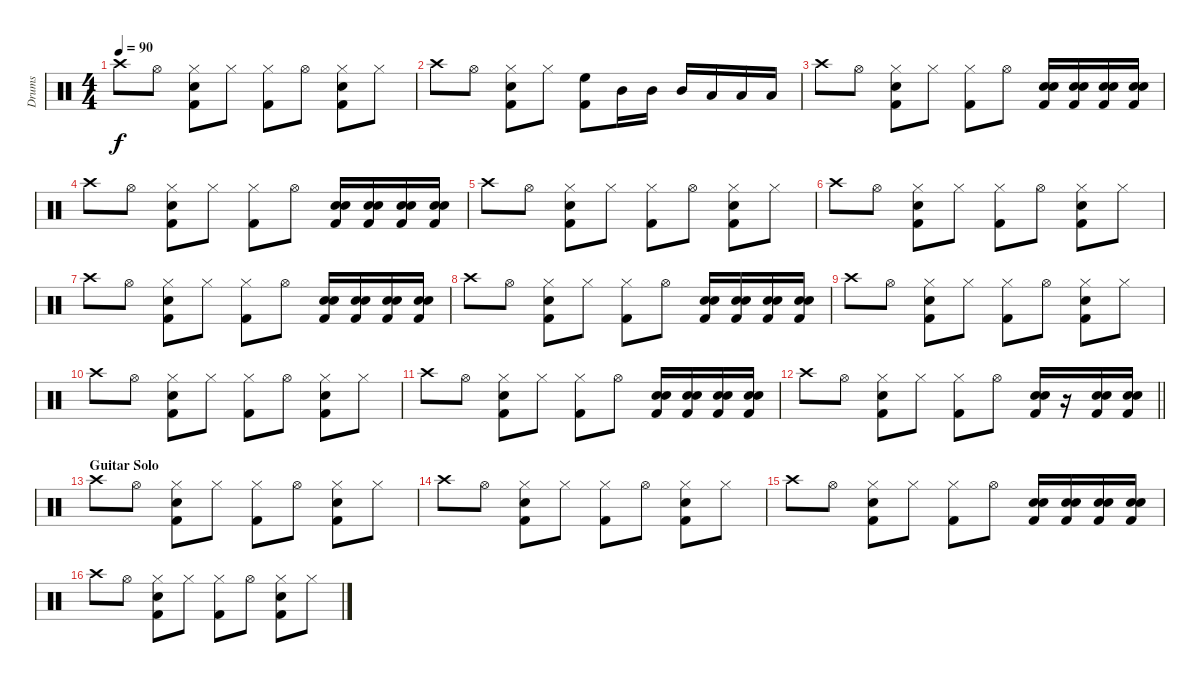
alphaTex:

\track ("Drums" "Drums") {instrument percussion}
\staff {score}
\articulation defaults
\ts (4 4)
\tempo 90
\clef neutral
\ks c "Crash high (hit)".8{dy f} "Hi-Hat (open)".8
("Kick (hit) 2" "Snare (hit) 2" "Hi-Hat (closed)").8 "Hi-Hat (closed)".8 ("Kick (hit) 2" "Hi-Hat (closed)").8 "Hi-Hat (open)".8 ("Kick (hit) 2" "Snare (hit) 2" "Hi-Hat (closed)").8 "Hi-Hat (closed)".8 |
"Crash high (hit)".8 "Hi-Hat (open)".8 ("Kick (hit) 2" "Snare (hit) 2" "Hi-Hat (closed)").8 "Hi-Hat (closed)".8 ("Kick (hit) 2" "High Floor Tom (hit)").8 "Mid Tom (hit)".16 "Mid Tom (hit)".16 "Mid Tom (hit)".16 "Low Tom (hit)".16 "Low Tom (hit)".16 "Low Tom (hit)".16 |
"Crash high (hit)".8 "Hi-Hat (open)".8 ("Kick (hit) 2" "Snare (hit) 2" "Hi-Hat (closed)").8 "Hi-Hat (closed)".8 ("Kick (hit) 2" "Hi-Hat (closed)").8 "Hi-Hat (open)".8 ("Snare (hit) 2" "Kick (hit) 2" "Snare (hit) 2").16 ("Snare (hit) 2" "Kick (hit) 2" "Snare (hit) 2").16 ("Snare (hit) 2" "Kick (hit) 2" "Snare (hit) 2").16 ("Snare (hit) 2" "Kick (hit) 2" "Snare (hit) 2").16 |
"Crash high (hit)".8 "Hi-Hat (open)".8 ("Kick (hit) 2" "Snare (hit) 2" "Hi-Hat (closed)").8 "Hi-Hat (closed)".8 ("Kick (hit) 2" "Hi-Hat (closed)").8 "Hi-Hat (open)".8 ("Snare (hit) 2" "Kick (hit) 2" "Snare (hit) 2").16 ("Snare (hit) 2" "Kick (hit) 2" "Snare (hit) 2").16 ("Snare (hit) 2" "Kick (hit) 2" "Snare (hit) 2").16 ("Snare (hit) 2" "Kick (hit) 2" "Snare (hit) 2").16 |
"Crash high (hit)".8 "Hi-Hat (open)".8 ("Kick (hit) 2" "Snare (hit) 2" "Hi-Hat (closed)").8 "Hi-Hat (closed)".8 ("Kick (hit) 2" "Hi-Hat (closed)").8 "Hi-Hat (open)".8 ("Kick (hit) 2" "Snare (hit) 2" "Hi-Hat (closed)").8 "Hi-Hat (closed)".8 |
"Crash high (hit)".8 "Hi-Hat (open)".8 ("Kick (hit) 2" "Snare (hit) 2" "Hi-Hat (closed)").8 "Hi-Hat (closed)".8 ("Kick (hit) 2" "Hi-Hat (closed)").8 "Hi-Hat (open)".8 ("Kick (hit) 2" "Snare (hit) 2" "Hi-Hat (closed)").8 "Hi-Hat (closed)".8 |
"Crash high (hit)".8 "Hi-Hat (open)".8 ("Kick (hit) 2" "Snare (hit) 2" "Hi-Hat (closed)").8 "Hi-Hat (closed)".8 ("Kick (hit) 2" "Hi-Hat (closed)").8 "Hi-Hat (open)".8 ("Snare (hit) 2" "Kick (hit) 2" "Snare (hit) 2").16 ("Snare (hit) 2" "Kick (hit) 2" "Snare (hit) 2").16 ("Snare (hit) 2" "Kick (hit) 2" "Snare (hit) 2").16 ("Snare (hit) 2" "Kick (hit) 2" "Snare (hit) 2").16 |
"Crash high (hit)".8 "Hi-Hat (open)".8 ("Kick (hit) 2" "Snare (hit) 2" "Hi-Hat (closed)").8 "Hi-Hat (closed)".8 ("Kick (hit) 2" "Hi-Hat (closed)").8 "Hi-Hat (open)".8 ("Snare (hit) 2" "Kick (hit) 2" "Snare (hit) 2").16 ("Snare (hit) 2" "Kick (hit) 2" "Snare (hit) 2").16 ("Snare (hit) 2" "Kick (hit) 2" "Snare (hit) 2").16 ("Snare (hit) 2" "Kick (hit) 2" "Snare (hit) 2").16 |
"Crash high (hit)".8 "Hi-Hat (open)".8 ("Kick (hit) 2" "Snare (hit) 2" "Hi-Hat (closed)").8 "Hi-Hat (closed)".8 ("Kick (hit) 2" "Hi-Hat (closed)").8 "Hi-Hat (open)".8 ("Kick (hit) 2" "Snare (hit) 2" "Hi-Hat (closed)").8 "Hi-Hat (closed)".8 |
"Crash high (hit)".8 "Hi-Hat (open)".8 ("Kick (hit) 2" "Snare (hit) 2" "Hi-Hat (closed)").8 "Hi-Hat (closed)".8 ("Kick (hit) 2" "Hi-Hat (closed)").8 "Hi-Hat (open)".8 ("Kick (hit) 2" "Snare (hit) 2" "Hi-Hat (closed)").8 "Hi-Hat (closed)".8 |
"Crash high (hit)".8 "Hi-Hat (open)".8 ("Kick (hit) 2" "Snare (hit) 2" "Hi-Hat (closed)").8 "Hi-Hat (closed)".8 ("Kick (hit) 2" "Hi-Hat (closed)").8 "Hi-Hat (open)".8 ("Snare (hit) 2" "Kick (hit) 2" "Snare (hit) 2").16 ("Snare (hit) 2" "Kick (hit) 2" "Snare (hit) 2").16 ("Snare (hit) 2" "Kick (hit) 2" "Snare (hit) 2").16 ("Snare (hit) 2" "Kick (hit) 2" "Snare (hit) 2").16 |
\barLineRight lightlight "Crash high (hit)".8 "Hi-Hat (open)".8
("Kick (hit) 2" "Snare (hit) 2" "Hi-Hat (closed)").8 "Hi-Hat (closed)".8 ("Kick (hit) 2" "Hi-Hat (closed)").8 "Hi-Hat (open)".8 ("Snare (hit) 2" "Kick (hit) 2" "Snare (hit) 2").16 r.16 ("Snare (hit) 2" "Kick (hit) 2" "Snare (hit) 2").16 ("Snare (hit) 2" "Kick (hit) 2" "Snare (hit) 2").16 |
\section ("" "Guitar Solo")
"Crash high (hit)".8 "Hi-Hat (open)".8 ("Kick (hit) 2" "Snare (hit) 2" "Hi-Hat (closed)").8 "Hi-Hat (closed)".8 ("Kick (hit) 2" "Hi-Hat (closed)").8 "Hi-Hat (open)".8 ("Kick (hit) 2" "Snare (hit) 2" "Hi-Hat (closed)").8 "Hi-Hat (closed)".8 |
"Crash high (hit)".8 "Hi-Hat (open)".8 ("Kick (hit) 2" "Snare (hit) 2" "Hi-Hat (closed)").8 "Hi-Hat (closed)".8 ("Kick (hit) 2" "Hi-Hat (closed)").8 "Hi-Hat (open)".8 ("Kick (hit) 2" "Snare (hit) 2" "Hi-Hat (closed)").8 "Hi-Hat (closed)".8 |
"Crash high (hit)".8 "Hi-Hat (open)".8 ("Kick (hit) 2" "Snare (hit) 2" "Hi-Hat (closed)").8 "Hi-Hat (closed)".8 ("Kick (hit) 2" "Hi-Hat (closed)").8 "Hi-Hat (open)".8 ("Snare (hit) 2" "Kick (hit) 2" "Snare (hit) 2").16 ("Snare (hit) 2" "Kick (hit) 2" "Snare (hit) 2").16 ("Snare (hit) 2" "Kick (hit) 2" "Snare (hit) 2").16 ("Snare (hit) 2" "Kick (hit) 2" "Snare (hit) 2").16 |
"Crash high (hit)".8 "Hi-Hat (open)".8 ("Kick (hit) 2" "Snare (hit) 2" "Hi-Hat (closed)").8 "Hi-Hat (closed)".8 ("Kick (hit) 2" "Hi-Hat (closed)").8 "Hi-Hat (open)".8 ("Kick (hit) 2" "Snare (hit) 2" "Hi-Hat (closed)").8 "Hi-Hat (closed)".8
